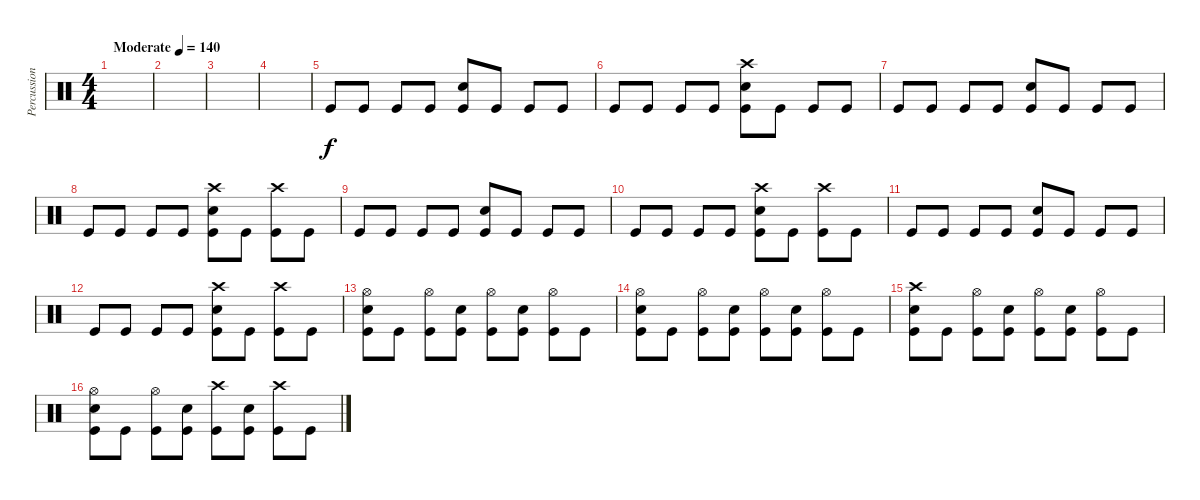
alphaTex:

\track ("Percussion" "Percussion") {instrument percussion}
\staff {score}
\articulation defaults
\ts (4 4)
\tempo (140 "Moderate")
\clef neutral
\ks c
|
|
|
|
"Kick (hit)".8 "Kick (hit)".8 "Kick (hit)".8 "Kick (hit)".8 ("Snare (hit) 2" "Kick (hit)").8 "Kick (hit)".8 "Kick (hit)".8 "Kick (hit)".8 |
"Kick (hit)".8 "Kick (hit)".8 "Kick (hit)".8 "Kick (hit)".8 ("Crash high (hit)" "Snare (hit) 2" "Kick (hit)").8 "Kick (hit)".8 "Kick (hit)".8 "Kick (hit)".8 |
"Kick (hit)".8 "Kick (hit)".8 "Kick (hit)".8 "Kick (hit)".8 ("Snare (hit) 2" "Kick (hit)").8 "Kick (hit)".8 "Kick (hit)".8 "Kick (hit)".8 |
"Kick (hit)".8 "Kick (hit)".8 "Kick (hit)".8 "Kick (hit)".8 ("Crash high (hit)" "Snare (hit) 2" "Kick (hit)").8 "Kick (hit)".8 ("Crash high (hit)" "Kick (hit)").8 "Kick (hit)".8 |
"Kick (hit)".8 "Kick (hit)".8 "Kick (hit)".8 "Kick (hit)".8 ("Snare (hit) 2" "Kick (hit)").8 "Kick (hit)".8 "Kick (hit)".8 "Kick (hit)".8 |
"Kick (hit)".8 "Kick (hit)".8 "Kick (hit)".8 "Kick (hit)".8 ("Crash high (hit)" "Snare (hit) 2" "Kick (hit)").8 "Kick (hit)".8 ("Crash high (hit)" "Kick (hit)").8 "Kick (hit)".8 |
"Kick (hit)".8 "Kick (hit)".8 "Kick (hit)".8 "Kick (hit)".8 ("Snare (hit) 2" "Kick (hit)").8 "Kick (hit)".8 "Kick (hit)".8 "Kick (hit)".8 |
"Kick (hit)".8 "Kick (hit)".8 "Kick (hit)".8 "Kick (hit)".8 ("Crash high (hit)" "Snare (hit) 2" "Kick (hit)").8 "Kick (hit)".8 ("Crash high (hit)" "Kick (hit)").8 "Kick (hit)".8 |
("Hi-Hat (open)" "Snare (hit) 2" "Kick (hit)").8 "Kick (hit)".8 ("Hi-Hat (open)" "Kick (hit)").8 ("Snare (hit) 2" "Kick (hit)").8 ("Hi-Hat (open)" "Kick (hit)").8 ("Snare (hit) 2" "Kick (hit)").8 ("Hi-Hat (open)" "Kick (hit)").8 "Kick (hit)".8 |
("Hi-Hat (open)" "Snare (hit) 2" "Kick (hit)").8 "Kick (hit)".8 ("Hi-Hat (open)" "Kick (hit)").8 ("Snare (hit) 2" "Kick (hit)").8 ("Hi-Hat (open)" "Kick (hit)").8 ("Snare (hit) 2" "Kick (hit)").8 ("Hi-Hat (open)" "Kick (hit)").8 "Kick (hit)".8 |
("Crash high (hit)" "Snare (hit) 2" "Kick (hit)").8 "Kick (hit)".8 ("Hi-Hat (open)" "Kick (hit)").8 ("Snare (hit) 2" "Kick (hit)").8 ("Hi-Hat (open)" "Kick (hit)").8 ("Snare (hit) 2" "Kick (hit)").8 ("Hi-Hat (open)" "Kick (hit)").8 "Kick (hit)".8 |
("Hi-Hat (open)" "Snare (hit) 2" "Kick (hit)").8 "Kick (hit)".8 ("Hi-Hat (open)" "Kick (hit)").8 ("Snare (hit) 2" "Kick (hit)").8 ("Crash high (hit)" "Kick (hit)").8 ("Snare (hit) 2" "Kick (hit)").8 ("Crash high (hit)" "Kick (hit)").8 "Kick (hit)".8
